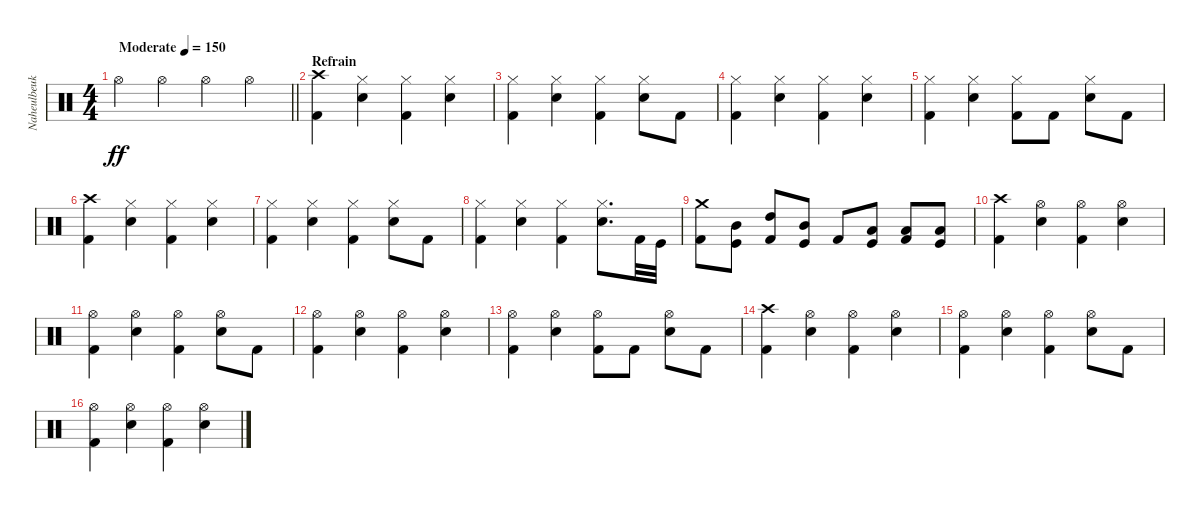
\track ("Naheulbeuk" "Naheulbeuk") {instrument percussion}
\staff {score}
\articulation defaults
\ts (4 4)
\tempo (150 "Moderate")
\clef neutral
\barLineRight lightlight
\ks c "Hi-Hat (open)".4{dy ff} "Hi-Hat (open)".4 "Hi-Hat (open)".4 "Hi-Hat (open)".4
|
\section ("" "Refrain")
("Crash high (hit)" "Kick (hit) 2").4 ("Hi-Hat (closed)" "Snare (hit) 2").4 ("Hi-Hat (closed)" "Kick (hit) 2").4 ("Hi-Hat (closed)" "Snare (hit) 2").4 |
("Hi-Hat (closed)" "Kick (hit) 2").4 ("Hi-Hat (closed)" "Snare (hit) 2").4 ("Hi-Hat (closed)" "Kick (hit) 2").4 ("Hi-Hat (closed)" "Snare (hit) 2").8 "Kick (hit) 2".8 |
("Hi-Hat (closed)" "Kick (hit) 2").4 ("Hi-Hat (closed)" "Snare (hit) 2").4 ("Hi-Hat (closed)" "Kick (hit) 2").4 ("Hi-Hat (closed)" "Snare (hit) 2").4 |
("Hi-Hat (closed)" "Kick (hit) 2").4 ("Hi-Hat (closed)" "Snare (hit) 2").4 ("Hi-Hat (closed)" "Kick (hit) 2").8 "Kick (hit) 2".8 ("Hi-Hat (closed)" "Snare (hit) 2").8 "Kick (hit) 2".8 |
("Crash high (hit)" "Kick (hit) 2").4 ("Hi-Hat (closed)" "Snare (hit) 2").4 ("Hi-Hat (closed)" "Kick (hit) 2").4 ("Hi-Hat (closed)" "Snare (hit) 2").4 |
("Hi-Hat (closed)" "Kick (hit) 2").4 ("Hi-Hat (closed)" "Snare (hit) 2").4 ("Hi-Hat (closed)" "Kick (hit) 2").4 ("Hi-Hat (closed)" "Snare (hit) 2").8 "Kick (hit) 2".8 |
("Hi-Hat (closed)" "Kick (hit) 2").4 ("Hi-Hat (closed)" "Snare (hit) 2").4 ("Hi-Hat (closed)" "Kick (hit) 2").4 ("Hi-Hat (closed)" "Snare (hit) 2").8{d} "Kick (hit) 2".32 "Kick (hit)".32 |
("Crash medium (hit)" "Kick (hit) 2").8 ("Mid Tom (hit)" "Kick (hit)").8 ("High Tom (hit)" "Kick (hit) 2").8 ("Mid Tom (hit)" "Kick (hit)").8 "Kick (hit) 2".8 ("Low Tom (hit)" "Kick (hit)").8 ("Low Tom (hit)" "Kick (hit) 2").8 ("Low Tom (hit)" "Kick (hit)").8 |
("Crash high (hit)" "Kick (hit) 2").4 ("Hi-Hat (open)" "Snare (hit) 2").4 ("Hi-Hat (open)" "Kick (hit) 2").4 ("Hi-Hat (open)" "Snare (hit) 2").4 |
("Hi-Hat (open)" "Kick (hit) 2").4 ("Hi-Hat (open)" "Snare (hit) 2").4 ("Hi-Hat (open)" "Kick (hit) 2").4 ("Hi-Hat (open)" "Snare (hit) 2").8 "Kick (hit) 2".8 |
("Hi-Hat (open)" "Kick (hit) 2").4 ("Hi-Hat (open)" "Snare (hit) 2").4 ("Hi-Hat (open)" "Kick (hit) 2").4 ("Hi-Hat (open)" "Snare (hit) 2").4 |
("Hi-Hat (open)" "Kick (hit) 2").4 ("Hi-Hat (open)" "Snare (hit) 2").4 ("Hi-Hat (open)" "Kick (hit) 2").8 "Kick (hit) 2".8 ("Hi-Hat (open)" "Snare (hit) 2").8 "Kick (hit) 2".8 |
("Crash high (hit)" "Kick (hit) 2").4 ("Hi-Hat (open)" "Snare (hit) 2").4 ("Hi-Hat (open)" "Kick (hit) 2").4 ("Hi-Hat (open)" "Snare (hit) 2").4 |
("Hi-Hat (open)" "Kick (hit) 2").4 ("Hi-Hat (open)" "Snare (hit) 2").4 ("Hi-Hat (open)" "Kick (hit) 2").4 ("Hi-Hat (open)" "Snare (hit) 2").8 "Kick (hit) 2".8 |
("Hi-Hat (open)" "Kick (hit) 2").4 ("Hi-Hat (open)" "Snare (hit) 2").4 ("Hi-Hat (open)" "Kick (hit) 2").4 ("Hi-Hat (open)" "Snare (hit) 2").4
